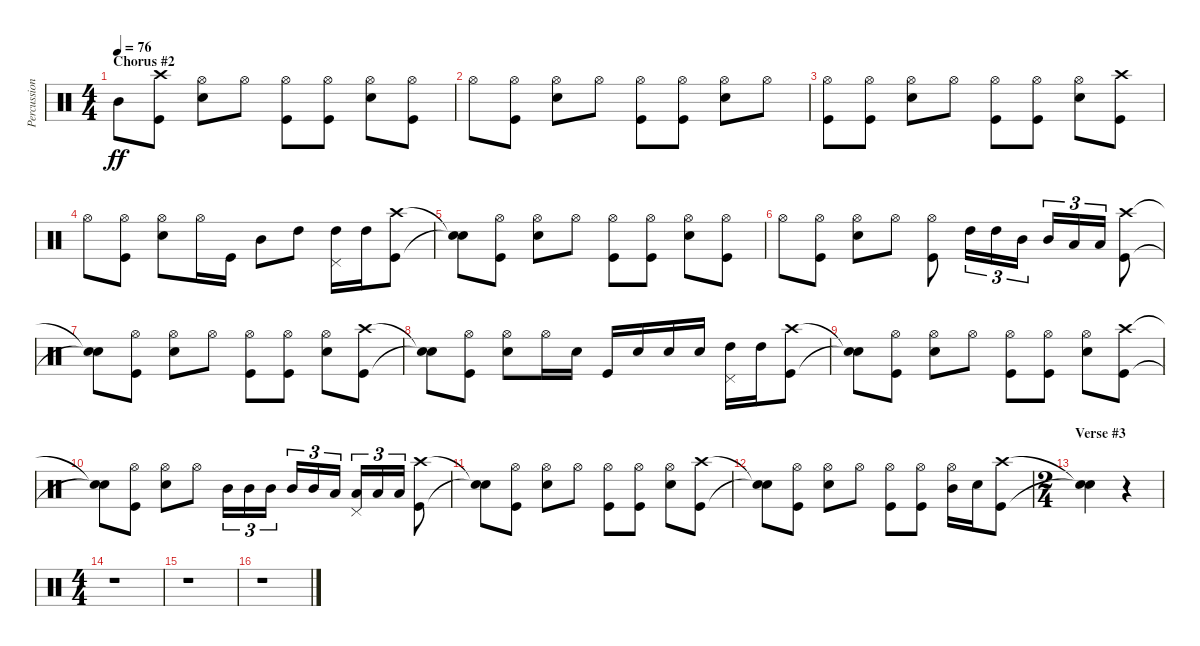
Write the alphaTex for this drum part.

\track ("Percussion" "Percussion") {instrument percussion}
\staff {score}
\articulation defaults
\ts (4 4)
\section ("" "Chorus #2")
\tempo 76
\clef neutral
\ks c "Mid Tom (hit)".8{dy ff}
("Crash high (hit)" "Kick (hit)").8 ("Hi-Hat (open)" "Snare (hit) 2").8 "Hi-Hat (open)".8 ("Hi-Hat (open)" "Kick (hit)").8 ("Hi-Hat (open)" "Kick (hit)").8 ("Hi-Hat (open)" "Snare (hit) 2").8 ("Hi-Hat (open)" "Kick (hit)").8 |
"Hi-Hat (open)".8 ("Hi-Hat (open)" "Kick (hit)").8 ("Hi-Hat (open)" "Snare (hit) 2").8 "Hi-Hat (open)".8 ("Hi-Hat (open)" "Kick (hit)").8 ("Hi-Hat (open)" "Kick (hit)").8 ("Hi-Hat (open)" "Snare (hit) 2").8 "Hi-Hat (open)".8 |
("Hi-Hat (open)" "Kick (hit)").8 ("Hi-Hat (open)" "Kick (hit)").8 ("Hi-Hat (open)" "Snare (hit) 2").8 "Hi-Hat (open)".8 ("Hi-Hat (open)" "Kick (hit)").8 ("Hi-Hat (open)" "Kick (hit)").8 ("Hi-Hat (open)" "Snare (hit) 2").8 ("Crash high (hit)" "Kick (hit)").8 |
"Hi-Hat (open)".8 ("Hi-Hat (open)" "Kick (hit)").8 ("Hi-Hat (open)" "Snare (hit) 2").8 "Hi-Hat (open)".16 "Kick (hit)".16 "Mid Tom (hit)".8 "High Tom (hit)".8 ("Pedal Hi-Hat (hit)" "High Tom (hit)").16 "High Tom (hit)".16 ("Crash high (hit)" "Kick (hit)").8 |
("Snare (hit)"{t} "Snare (hit)"{t}).8 ("Hi-Hat (open)" "Kick (hit)").8 ("Hi-Hat (open)" "Snare (hit) 2").8 "Hi-Hat (open)".8 ("Hi-Hat (open)" "Kick (hit)").8 ("Hi-Hat (open)" "Kick (hit)").8 ("Hi-Hat (open)" "Snare (hit) 2").8 ("Hi-Hat (open)" "Kick (hit)").8 |
"Hi-Hat (open)".8 ("Hi-Hat (open)" "Kick (hit)").8 ("Hi-Hat (open)" "Snare (hit) 2").8 "Hi-Hat (open)".8 ("Hi-Hat (open)" "Kick (hit)").8 "High Tom (hit)".16{tu (3 2)} "High Tom (hit)".16{tu (3 2)} "Mid Tom (hit)".16{tu (3 2)} "Mid Tom (hit)".16{tu (3 2)} "Low Tom (hit)".16{tu (3 2)} "Low Tom (hit)".16{tu (3 2)} ("Crash high (hit)" "Kick (hit)").8 |
("Snare (hit)"{t} "Snare (hit)"{t}).8 ("Hi-Hat (open)" "Kick (hit)").8 ("Hi-Hat (open)" "Snare (hit) 2").8 "Hi-Hat (open)".8 ("Hi-Hat (open)" "Kick (hit)").8 ("Hi-Hat (open)" "Kick (hit)").8 ("Hi-Hat (open)" "Snare (hit) 2").8 ("Crash high (hit)" "Kick (hit)").8 |
("Snare (hit)"{t} "Snare (hit)"{t}).8 ("Hi-Hat (open)" "Kick (hit)").8 ("Hi-Hat (open)" "Snare (hit) 2").8 "Hi-Hat (open)".16 "Snare (hit) 2".16 "Kick (hit)".16 "Snare (hit) 2".16 "Snare (hit) 2".16 "Snare (hit) 2".16 ("Pedal Hi-Hat (hit)" "High Tom (hit)").16 "High Tom (hit)".16 ("Crash high (hit)" "Kick (hit)").8 |
("Snare (hit)"{t} "Snare (hit)"{t}).8 ("Hi-Hat (open)" "Kick (hit)").8 ("Hi-Hat (open)" "Snare (hit) 2").8 "Hi-Hat (open)".8 ("Hi-Hat (open)" "Kick (hit)").8 ("Hi-Hat (open)" "Kick (hit)").8 ("Hi-Hat (open)" "Snare (hit) 2").8 ("Crash high (hit)" "Kick (hit)").8 |
("Snare (hit)"{t} "Snare (hit)"{t}).8 ("Hi-Hat (open)" "Kick (hit)").8 ("Hi-Hat (open)" "Snare (hit) 2").8 "Hi-Hat (open)".8 "Mid Tom (hit)".16{tu (3 2)} "Mid Tom (hit)".16{tu (3 2)} "Mid Tom (hit)".16{tu (3 2)} "Mid Tom (hit)".16{tu (3 2)} "Mid Tom (hit)".16{tu (3 2)} "Low Tom (hit)".16{tu (3 2)} ("Pedal Hi-Hat (hit)" "Low Tom (hit)").16{tu (3 2)} "Low Tom (hit)".16{tu (3 2)} "Low Tom (hit)".16{tu (3 2)} ("Crash high (hit)" "Kick (hit)").8 |
("Snare (hit)"{t} "Snare (hit)"{t}).8 ("Hi-Hat (open)" "Kick (hit)").8 ("Hi-Hat (open)" "Snare (hit) 2").8 "Hi-Hat (open)".8 ("Hi-Hat (open)" "Kick (hit)").8 ("Hi-Hat (open)" "Kick (hit)").8 ("Hi-Hat (open)" "Snare (hit) 2").8 ("Crash high (hit)" "Kick (hit)").8 |
("Snare (hit)"{t} "Snare (hit)"{t}).8 ("Hi-Hat (open)" "Kick (hit)").8 ("Hi-Hat (open)" "Snare (hit) 2").8 "Hi-Hat (open)".8 ("Hi-Hat (open)" "Kick (hit)").8 ("Hi-Hat (open)" "Kick (hit)").8 ("Hi-Hat (open)" "Mid Tom (hit)").16 "Snare (hit) 2".16 ("Crash high (hit)" "Kick (hit)").8 |
\ts (2 4)
\section ("" "Verse #3")
("Snare (hit)"{t} "Snare (hit)"{t}).4 r.4 |
\ts (4 4)
r.1 |
r.1 |
r.1
